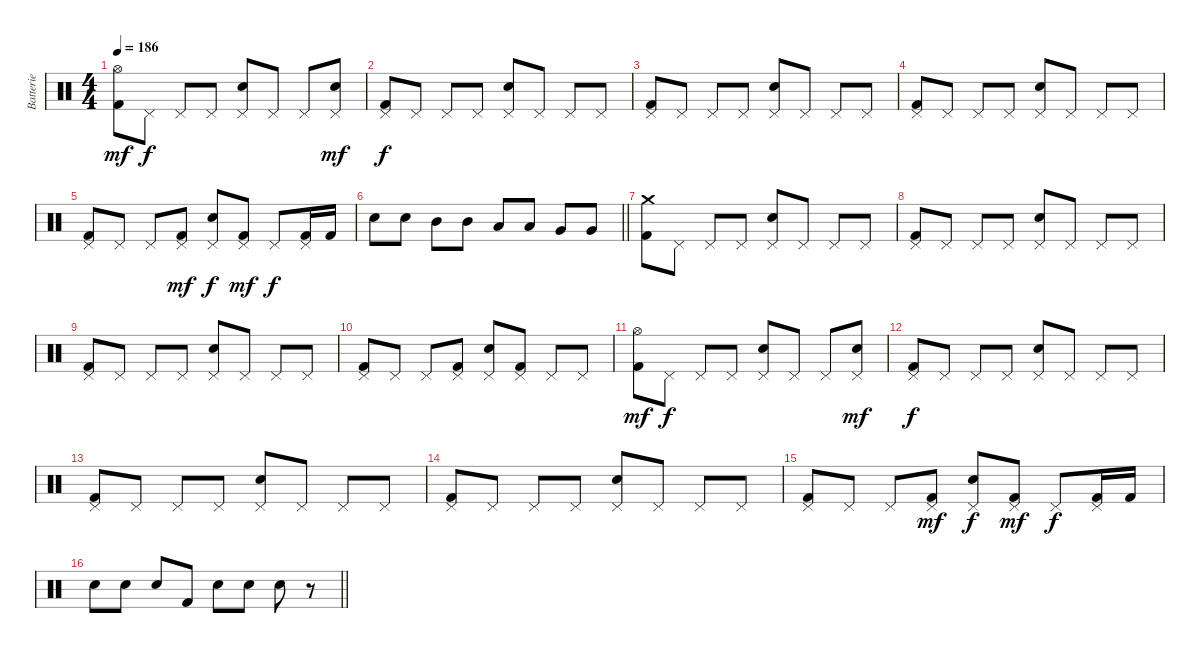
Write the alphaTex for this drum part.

\track ("Batterie" "Batterie") {instrument percussion}
\staff {score}
\articulation defaults
\ts (4 4)
\tempo 186
\clef neutral
\ks c
("Kick (hit) 2" "Hi-Hat (open)").8{dy mf} "Pedal Hi-Hat (hit)".8{dy f} "Pedal Hi-Hat (hit)".8 "Pedal Hi-Hat (hit)".8 ("Electric Snare (hit)" "Pedal Hi-Hat (hit)").8 "Pedal Hi-Hat (hit)".8 "Pedal Hi-Hat (hit)".8 ("Electric Snare (hit)" "Pedal Hi-Hat (hit)").8{dy mf} |
("Kick (hit) 2" "Pedal Hi-Hat (hit)").8{dy f} "Pedal Hi-Hat (hit)".8 "Pedal Hi-Hat (hit)".8 "Pedal Hi-Hat (hit)".8 ("Electric Snare (hit)" "Pedal Hi-Hat (hit)").8 "Pedal Hi-Hat (hit)".8 "Pedal Hi-Hat (hit)".8 "Pedal Hi-Hat (hit)".8 |
("Kick (hit) 2" "Pedal Hi-Hat (hit)").8 "Pedal Hi-Hat (hit)".8 "Pedal Hi-Hat (hit)".8 "Pedal Hi-Hat (hit)".8 ("Electric Snare (hit)" "Pedal Hi-Hat (hit)").8 "Pedal Hi-Hat (hit)".8 "Pedal Hi-Hat (hit)".8 "Pedal Hi-Hat (hit)".8 |
("Kick (hit) 2" "Pedal Hi-Hat (hit)").8 "Pedal Hi-Hat (hit)".8 "Pedal Hi-Hat (hit)".8 "Pedal Hi-Hat (hit)".8 ("Electric Snare (hit)" "Pedal Hi-Hat (hit)").8 "Pedal Hi-Hat (hit)".8 "Pedal Hi-Hat (hit)".8 "Pedal Hi-Hat (hit)".8 |
("Kick (hit) 2" "Pedal Hi-Hat (hit)").8 "Pedal Hi-Hat (hit)".8 "Pedal Hi-Hat (hit)".8 ("Kick (hit) 2" "Pedal Hi-Hat (hit)").8{dy mf} ("Electric Snare (hit)" "Pedal Hi-Hat (hit)").8{dy f} ("Kick (hit) 2" "Pedal Hi-Hat (hit)").8{dy mf} "Pedal Hi-Hat (hit)".8{dy f} ("Kick (hit) 2" "Pedal Hi-Hat (hit)").16 "Kick (hit) 2".16 |
\barLineRight lightlight "Electric Snare (hit)".8 "Electric Snare (hit)".8 "Mid Tom (hit)".8 "Mid Tom (hit)".8 "Low Tom (hit)".8 "Low Tom (hit)".8 "Very Low Tom (hit)".8 "Very Low Tom (hit)".8
|
("Kick (hit) 2" "Crash medium (hit)").8 "Pedal Hi-Hat (hit)".8 "Pedal Hi-Hat (hit)".8 "Pedal Hi-Hat (hit)".8 ("Electric Snare (hit)" "Pedal Hi-Hat (hit)").8 "Pedal Hi-Hat (hit)".8 "Pedal Hi-Hat (hit)".8 "Pedal Hi-Hat (hit)".8 |
("Kick (hit) 2" "Pedal Hi-Hat (hit)").8 "Pedal Hi-Hat (hit)".8 "Pedal Hi-Hat (hit)".8 "Pedal Hi-Hat (hit)".8 ("Electric Snare (hit)" "Pedal Hi-Hat (hit)").8 "Pedal Hi-Hat (hit)".8 "Pedal Hi-Hat (hit)".8 "Pedal Hi-Hat (hit)".8 |
("Kick (hit) 2" "Pedal Hi-Hat (hit)").8 "Pedal Hi-Hat (hit)".8 "Pedal Hi-Hat (hit)".8 "Pedal Hi-Hat (hit)".8 ("Electric Snare (hit)" "Pedal Hi-Hat (hit)").8 "Pedal Hi-Hat (hit)".8 "Pedal Hi-Hat (hit)".8 "Pedal Hi-Hat (hit)".8 |
("Kick (hit) 2" "Pedal Hi-Hat (hit)").8 "Pedal Hi-Hat (hit)".8 "Pedal Hi-Hat (hit)".8 ("Kick (hit) 2" "Pedal Hi-Hat (hit)").8 ("Electric Snare (hit)" "Pedal Hi-Hat (hit)").8 ("Kick (hit) 2" "Pedal Hi-Hat (hit)").8 "Pedal Hi-Hat (hit)".8 "Pedal Hi-Hat (hit)".8 |
("Kick (hit) 2" "Hi-Hat (open)").8{dy mf} "Pedal Hi-Hat (hit)".8{dy f} "Pedal Hi-Hat (hit)".8 "Pedal Hi-Hat (hit)".8 ("Electric Snare (hit)" "Pedal Hi-Hat (hit)").8 "Pedal Hi-Hat (hit)".8 "Pedal Hi-Hat (hit)".8 ("Electric Snare (hit)" "Pedal Hi-Hat (hit)").8{dy mf} |
("Kick (hit) 2" "Pedal Hi-Hat (hit)").8{dy f} "Pedal Hi-Hat (hit)".8 "Pedal Hi-Hat (hit)".8 "Pedal Hi-Hat (hit)".8 ("Electric Snare (hit)" "Pedal Hi-Hat (hit)").8 "Pedal Hi-Hat (hit)".8 "Pedal Hi-Hat (hit)".8 "Pedal Hi-Hat (hit)".8 |
("Kick (hit) 2" "Pedal Hi-Hat (hit)").8 "Pedal Hi-Hat (hit)".8 "Pedal Hi-Hat (hit)".8 "Pedal Hi-Hat (hit)".8 ("Electric Snare (hit)" "Pedal Hi-Hat (hit)").8 "Pedal Hi-Hat (hit)".8 "Pedal Hi-Hat (hit)".8 "Pedal Hi-Hat (hit)".8 |
("Kick (hit) 2" "Pedal Hi-Hat (hit)").8 "Pedal Hi-Hat (hit)".8 "Pedal Hi-Hat (hit)".8 "Pedal Hi-Hat (hit)".8 ("Electric Snare (hit)" "Pedal Hi-Hat (hit)").8 "Pedal Hi-Hat (hit)".8 "Pedal Hi-Hat (hit)".8 "Pedal Hi-Hat (hit)".8 |
("Kick (hit) 2" "Pedal Hi-Hat (hit)").8 "Pedal Hi-Hat (hit)".8 "Pedal Hi-Hat (hit)".8 ("Kick (hit) 2" "Pedal Hi-Hat (hit)").8{dy mf} ("Electric Snare (hit)" "Pedal Hi-Hat (hit)").8{dy f} ("Kick (hit) 2" "Pedal Hi-Hat (hit)").8{dy mf} "Pedal Hi-Hat (hit)".8{dy f} ("Kick (hit) 2" "Pedal Hi-Hat (hit)").16 "Kick (hit) 2".16 |
\barLineRight lightlight "Electric Snare (hit)".8 "Electric Snare (hit)".8 "Electric Snare (hit)".8 "Kick (hit) 2".8 "Electric Snare (hit)".8 "Electric Snare (hit)".8 "Electric Snare (hit)".8
r.8
